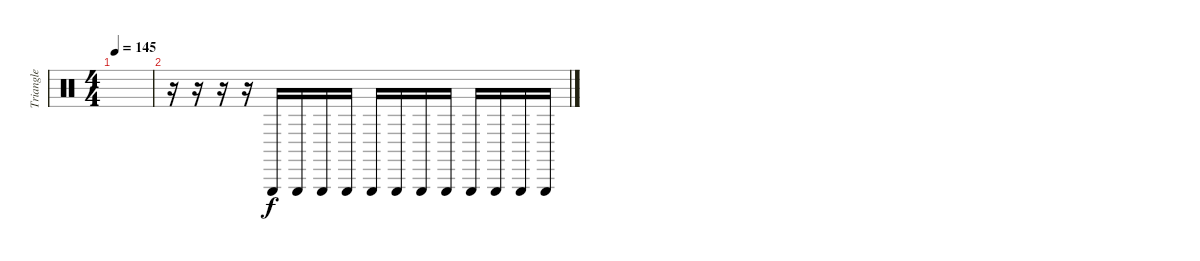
\track ("Triangle" "Triangle") {instrument percussion}
\staff {score}
\articulation defaults
\ts (4 4)
\tempo 145
\clef neutral
\ks c
|
r.16 r.16 r.16 r.16 "Triangle (hit)".16 "Triangle (hit)".16 "Triangle (hit)".16 "Triangle (hit)".16 "Triangle (hit)".16 "Triangle (hit)".16 "Triangle (hit)".16 "Triangle (hit)".16 "Triangle (hit)".16 "Triangle (hit)".16 "Triangle (hit)".16 "Triangle (hit)".16
